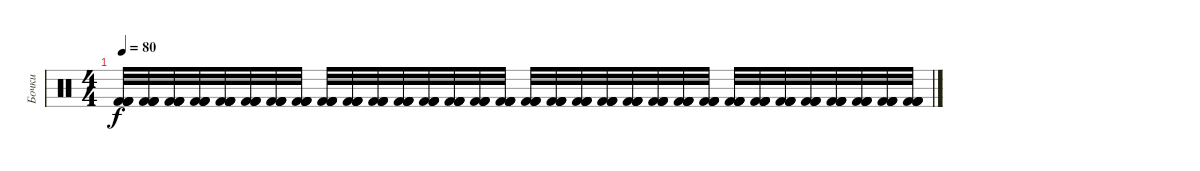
\track ("Бочки" "Бочки") {instrument percussion}
\staff {score}
\articulation defaults
\ts (4 4)
\tempo 80
\clef neutral
\ks c
("Kick (hit) 2" "Kick (hit) 2" "Kick (hit) 2" "Kick (hit) 2").32{dy f} ("Kick (hit) 2" "Kick (hit) 2" "Kick (hit) 2" "Kick (hit) 2").32 ("Kick (hit) 2" "Kick (hit) 2" "Kick (hit) 2" "Kick (hit) 2").32 ("Kick (hit) 2" "Kick (hit) 2" "Kick (hit) 2" "Kick (hit) 2").32 ("Kick (hit) 2" "Kick (hit) 2" "Kick (hit) 2" "Kick (hit) 2").32 ("Kick (hit) 2" "Kick (hit) 2" "Kick (hit) 2" "Kick (hit) 2").32 ("Kick (hit) 2" "Kick (hit) 2" "Kick (hit) 2" "Kick (hit) 2").32 ("Kick (hit) 2" "Kick (hit) 2" "Kick (hit) 2" "Kick (hit) 2").32 ("Kick (hit) 2" "Kick (hit) 2" "Kick (hit) 2" "Kick (hit) 2").32 ("Kick (hit) 2" "Kick (hit) 2" "Kick (hit) 2" "Kick (hit) 2").32 ("Kick (hit) 2" "Kick (hit) 2" "Kick (hit) 2" "Kick (hit) 2").32 ("Kick (hit) 2" "Kick (hit) 2" "Kick (hit) 2" "Kick (hit) 2").32 ("Kick (hit) 2" "Kick (hit) 2" "Kick (hit) 2" "Kick (hit) 2").32 ("Kick (hit) 2" "Kick (hit) 2" "Kick (hit) 2" "Kick (hit) 2").32 ("Kick (hit) 2" "Kick (hit) 2" "Kick (hit) 2" "Kick (hit) 2").32 ("Kick (hit) 2" "Kick (hit) 2" "Kick (hit) 2" "Kick (hit) 2").32 ("Kick (hit) 2" "Kick (hit) 2" "Kick (hit) 2" "Kick (hit) 2").32 ("Kick (hit) 2" "Kick (hit) 2" "Kick (hit) 2" "Kick (hit) 2").32 ("Kick (hit) 2" "Kick (hit) 2" "Kick (hit) 2" "Kick (hit) 2").32 ("Kick (hit) 2" "Kick (hit) 2" "Kick (hit) 2" "Kick (hit) 2").32 ("Kick (hit) 2" "Kick (hit) 2" "Kick (hit) 2" "Kick (hit) 2").32 ("Kick (hit) 2" "Kick (hit) 2" "Kick (hit) 2" "Kick (hit) 2").32 ("Kick (hit) 2" "Kick (hit) 2" "Kick (hit) 2" "Kick (hit) 2").32 ("Kick (hit) 2" "Kick (hit) 2" "Kick (hit) 2" "Kick (hit) 2").32 ("Kick (hit) 2" "Kick (hit) 2" "Kick (hit) 2" "Kick (hit) 2").32 ("Kick (hit) 2" "Kick (hit) 2" "Kick (hit) 2" "Kick (hit) 2").32 ("Kick (hit) 2" "Kick (hit) 2" "Kick (hit) 2" "Kick (hit) 2").32 ("Kick (hit) 2" "Kick (hit) 2" "Kick (hit) 2" "Kick (hit) 2").32 ("Kick (hit) 2" "Kick (hit) 2" "Kick (hit) 2" "Kick (hit) 2").32 ("Kick (hit) 2" "Kick (hit) 2" "Kick (hit) 2" "Kick (hit) 2").32 ("Kick (hit) 2" "Kick (hit) 2" "Kick (hit) 2" "Kick (hit) 2").32 ("Kick (hit) 2" "Kick (hit) 2" "Kick (hit) 2" "Kick (hit) 2").32
